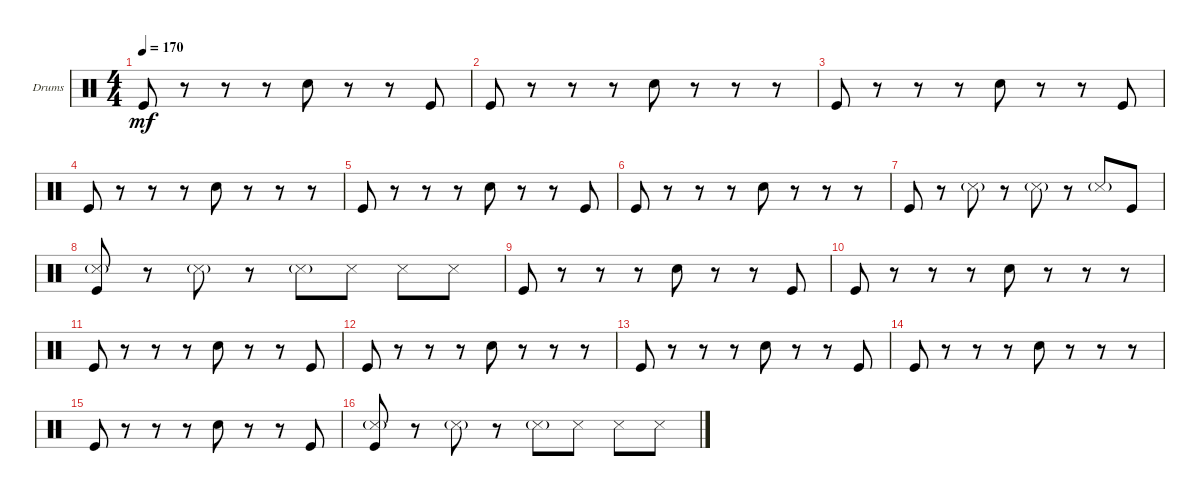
\defaultSystemsLayout 4
\bracketExtendMode groupsimilarinstruments
\firstSystemTrackNameOrientation horizontal
\otherSystemsTrackNameOrientation horizontal
\track ("Drumkit" "Drums") {instrument percussion}
\staff {score}
\articulation defaults
\ts (4 4)
\tempo 170
\clef neutral
\ks c "Kick (hit)".8{dy mf}
r.8 r.8 r.8 "Snare (hit) 2".8 r.8 r.8 "Kick (hit)".8 |
"Kick (hit)".8 r.8 r.8 r.8 "Snare (hit) 2".8 r.8 r.8 r.8 |
"Kick (hit)".8 r.8 r.8 r.8 "Snare (hit) 2".8 r.8 r.8 "Kick (hit)".8 |
"Kick (hit)".8 r.8 r.8 r.8 "Snare (hit) 2".8 r.8 r.8 r.8 |
"Kick (hit)".8 r.8 r.8 r.8 "Snare (hit) 2".8 r.8 r.8 "Kick (hit)".8 |
"Kick (hit)".8 r.8 r.8 r.8 "Snare (hit) 2".8 r.8 r.8 r.8 |
"Kick (hit)".8 r.8 "Snare (side stick) 3"{g}.8 r.8 "Snare (side stick) 3"{g}.8 r.8 "Snare (side stick) 3"{g}.8 "Kick (hit)".8 |
("Kick (hit)" "Snare (side stick) 3"{g}).8 r.8 "Snare (side stick) 3"{g}.8 r.8 "Snare (side stick) 3"{g}.8 "Snare (side stick) 3".8 "Snare (side stick) 3".8 "Snare (side stick) 3".8 |
"Kick (hit)".8 r.8 r.8 r.8 "Snare (hit) 2".8 r.8 r.8 "Kick (hit)".8 |
"Kick (hit)".8 r.8 r.8 r.8 "Snare (hit) 2".8 r.8 r.8 r.8 |
"Kick (hit)".8 r.8 r.8 r.8 "Snare (hit) 2".8 r.8 r.8 "Kick (hit)".8 |
"Kick (hit)".8 r.8 r.8 r.8 "Snare (hit) 2".8 r.8 r.8 r.8 |
"Kick (hit)".8 r.8 r.8 r.8 "Snare (hit) 2".8 r.8 r.8 "Kick (hit)".8 |
"Kick (hit)".8 r.8 r.8 r.8 "Snare (hit) 2".8 r.8 r.8 r.8 |
"Kick (hit)".8 r.8 r.8 r.8 "Snare (hit) 2".8 r.8 r.8 "Kick (hit)".8 |
("Kick (hit)" "Snare (side stick) 3"{g}).8 r.8 "Snare (side stick) 3"{g}.8 r.8 "Snare (side stick) 3"{g}.8 "Snare (side stick) 3".8 "Snare (side stick) 3".8 "Snare (side stick) 3".8
